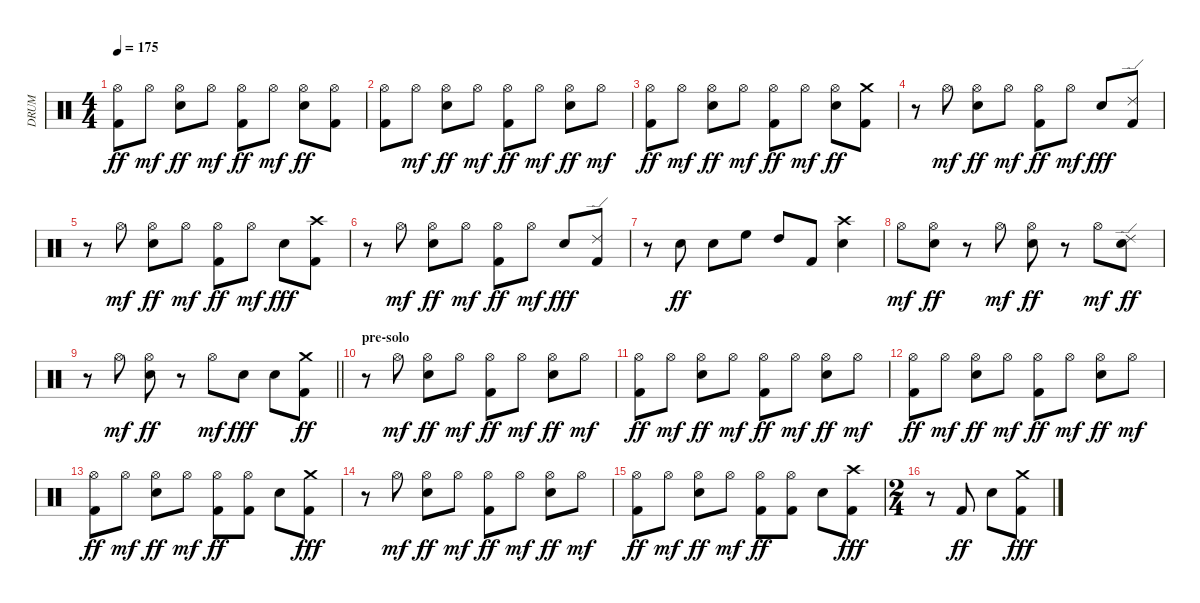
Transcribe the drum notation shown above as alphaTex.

\track ("DRUM" "DRUM") {instrument percussion}
\staff {score}
\articulation defaults
\ts (4 4)
\tempo 175
\clef neutral
\ks c
("Hi-Hat (open)" "Kick (hit) 2").8{dy ff} "Hi-Hat (open)".8{dy mf} ("Hi-Hat (open)" "Snare (hit) 2").8{dy ff} "Hi-Hat (open)".8{dy mf} ("Hi-Hat (open)" "Kick (hit) 2").8{dy ff} "Hi-Hat (open)".8{dy mf} ("Hi-Hat (open)" "Snare (hit) 2").8{dy ff} ("Hi-Hat (open)" "Kick (hit) 2").8 |
("Hi-Hat (open)" "Kick (hit) 2").8 "Hi-Hat (open)".8{dy mf} ("Hi-Hat (open)" "Snare (hit) 2").8{dy ff} "Hi-Hat (open)".8{dy mf} ("Hi-Hat (open)" "Kick (hit) 2").8{dy ff} "Hi-Hat (open)".8{dy mf} ("Hi-Hat (open)" "Snare (hit) 2").8{dy ff} "Hi-Hat (open)".8{dy mf} |
("Hi-Hat (open)" "Kick (hit) 2").8{dy ff} "Hi-Hat (open)".8{dy mf} ("Hi-Hat (open)" "Snare (hit) 2").8{dy ff} "Hi-Hat (open)".8{dy mf} ("Hi-Hat (open)" "Kick (hit) 2").8{dy ff} "Hi-Hat (open)".8{dy mf} ("Hi-Hat (open)" "Snare (hit) 2").8{dy ff} ("Crash medium (hit)" "Kick (hit) 2").8 |
r.8 "Hi-Hat (open)".8{dy mf} ("Hi-Hat (open)" "Snare (hit) 2").8{dy ff} "Hi-Hat (open)".8{dy mf} ("Hi-Hat (open)" "Kick (hit) 2").8{dy ff} "Hi-Hat (open)".8{dy mf} "Snare (hit) 2".8{dy fff} ("Ride (edge) 2" "Kick (hit) 2").8 |
r.8 "Hi-Hat (open)".8{dy mf} ("Hi-Hat (open)" "Snare (hit) 2").8{dy ff} "Hi-Hat (open)".8{dy mf} ("Hi-Hat (open)" "Kick (hit) 2").8{dy ff} "Hi-Hat (open)".8{dy mf} "Snare (hit) 2".8{dy fff} ("Crash high (hit)" "Kick (hit) 2").8 |
r.8 "Hi-Hat (open)".8{dy mf} ("Hi-Hat (open)" "Snare (hit) 2").8{dy ff} "Hi-Hat (open)".8{dy mf} ("Hi-Hat (open)" "Kick (hit) 2").8{dy ff} "Hi-Hat (open)".8{dy mf} "Snare (hit) 2".8{dy fff} ("Ride (edge) 2" "Kick (hit) 2").8 |
r.8 "Electric Snare (hit)".8{dy ff} "Snare (hit) 2".8 "High Floor Tom (hit)".8 "High Tom (hit)".8 "Kick (hit) 2".8 ("Crash high (hit)" "Snare (hit) 2").4 |
"Hi-Hat (open)".8{dy mf} ("Hi-Hat (open)" "Snare (hit) 2").8{dy ff} r.8 "Hi-Hat (open)".8{dy mf} ("Hi-Hat (open)" "Snare (hit) 2").8{dy ff} r.8 "Hi-Hat (open)".8{dy mf} ("Ride (edge) 2" "Snare (hit) 2").8{dy ff} |
\barLineRight lightlight
r.8 "Hi-Hat (open)".8{dy mf} ("Hi-Hat (open)" "Snare (hit) 2").8{dy ff} r.8 "Hi-Hat (open)".8{dy mf} "Electric Snare (hit)".8{dy fff} "Snare (hit) 2".8 ("Crash medium (hit)" "Kick (hit) 2").8{dy ff} |
\section ("" "pre-solo")
r.8 "Hi-Hat (open)".8{dy mf} ("Hi-Hat (open)" "Snare (hit) 2").8{dy ff} "Hi-Hat (open)".8{dy mf} ("Hi-Hat (open)" "Kick (hit) 2").8{dy ff} "Hi-Hat (open)".8{dy mf} ("Hi-Hat (open)" "Snare (hit) 2").8{dy ff} "Hi-Hat (open)".8{dy mf} |
("Hi-Hat (open)" "Kick (hit) 2").8{dy ff} "Hi-Hat (open)".8{dy mf} ("Hi-Hat (open)" "Snare (hit) 2").8{dy ff} "Hi-Hat (open)".8{dy mf} ("Hi-Hat (open)" "Kick (hit) 2").8{dy ff} "Hi-Hat (open)".8{dy mf} ("Hi-Hat (open)" "Snare (hit) 2").8{dy ff} "Hi-Hat (open)".8{dy mf} |
("Hi-Hat (open)" "Kick (hit) 2").8{dy ff} "Hi-Hat (open)".8{dy mf} ("Hi-Hat (open)" "Snare (hit) 2").8{dy ff} "Hi-Hat (open)".8{dy mf} ("Hi-Hat (open)" "Kick (hit) 2").8{dy ff} "Hi-Hat (open)".8{dy mf} ("Hi-Hat (open)" "Snare (hit) 2").8{dy ff} "Hi-Hat (open)".8{dy mf} |
("Hi-Hat (open)" "Kick (hit) 2").8{dy ff} "Hi-Hat (open)".8{dy mf} ("Hi-Hat (open)" "Snare (hit) 2").8{dy ff} "Hi-Hat (open)".8{dy mf} ("Hi-Hat (open)" "Kick (hit) 2").8{dy ff} ("Hi-Hat (open)" "Kick (hit) 2").8 "Snare (hit) 2".8 ("Crash medium (hit)" "Kick (hit) 2").8{dy fff} |
r.8 "Hi-Hat (open)".8{dy mf} ("Hi-Hat (open)" "Snare (hit) 2").8{dy ff} "Hi-Hat (open)".8{dy mf} ("Hi-Hat (open)" "Kick (hit) 2").8{dy ff} "Hi-Hat (open)".8{dy mf} ("Hi-Hat (open)" "Snare (hit) 2").8{dy ff} "Hi-Hat (open)".8{dy mf} |
("Hi-Hat (open)" "Kick (hit) 2").8{dy ff} "Hi-Hat (open)".8{dy mf} ("Hi-Hat (open)" "Snare (hit) 2").8{dy ff} "Hi-Hat (open)".8{dy mf} ("Hi-Hat (open)" "Kick (hit) 2").8{dy ff} ("Hi-Hat (open)" "Kick (hit) 2").8 "Snare (hit) 2".8 ("Crash high (hit)" "Kick (hit) 2").8{dy fff} |
\ts (2 4)
r.8 "Kick (hit) 2".8{dy ff} "Snare (hit) 2".8 ("Crash medium (hit)" "Kick (hit) 2").8{dy fff}
